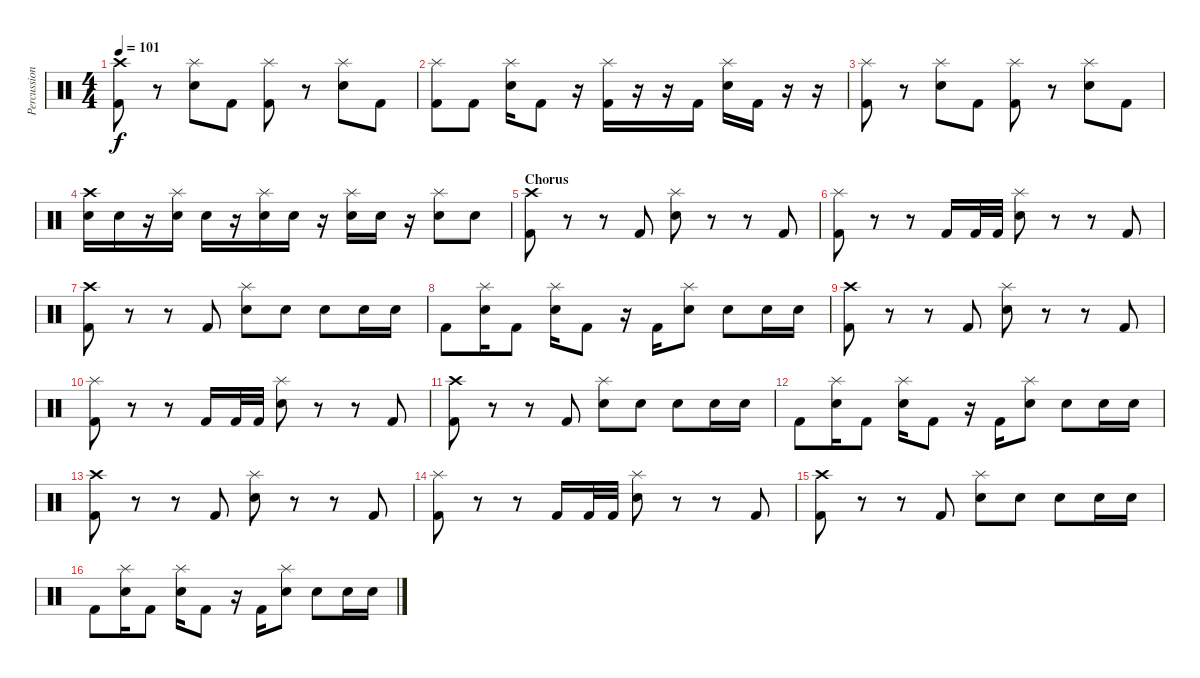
\track ("Percussion" "Percussion") {instrument percussion}
\staff {score}
\articulation defaults
\ts (4 4)
\tempo 101
\clef neutral
\ks c
("Crash high (hit)" "Kick (hit) 2").8{dy f} r.8 ("Splash (hit)" "Electric Snare (hit)").8 "Kick (hit) 2".8 ("Splash (hit)" "Kick (hit) 2").8 r.8 ("Splash (hit)" "Electric Snare (hit)").8 "Kick (hit) 2".8 |
("Splash (hit)" "Kick (hit) 2").8 "Kick (hit) 2".8 ("Splash (hit)" "Electric Snare (hit)").16 "Kick (hit) 2".8 r.16 ("Splash (hit)" "Kick (hit) 2").16 r.16 r.16 "Kick (hit) 2".16 ("Splash (hit)" "Electric Snare (hit)").16 "Kick (hit) 2".16 r.16 r.16 |
("Splash (hit)" "Kick (hit) 2").8 r.8 ("Splash (hit)" "Electric Snare (hit)").8 "Kick (hit) 2".8 ("Splash (hit)" "Kick (hit) 2").8 r.8 ("Splash (hit)" "Electric Snare (hit)").8 "Kick (hit) 2".8 |
("Crash high (hit)" "Electric Snare (hit)").16 "Electric Snare (hit)".16 r.16 ("Splash (hit)" "Electric Snare (hit)").16 "Electric Snare (hit)".16 r.16 ("Splash (hit)" "Electric Snare (hit)").16 "Electric Snare (hit)".16 r.16 ("Splash (hit)" "Electric Snare (hit)").16 "Electric Snare (hit)".16 r.16 ("Splash (hit)" "Electric Snare (hit)").8 "Electric Snare (hit)".8 |
\section ("" "Chorus")
("Crash high (hit)" "Kick (hit) 2").8 r.8 r.8 "Kick (hit) 2".8 ("Splash (hit)" "Electric Snare (hit)").8 r.8 r.8 "Kick (hit) 2".8 |
("Splash (hit)" "Kick (hit) 2").8 r.8 r.8 "Kick (hit) 2".16 "Kick (hit) 2".32 "Kick (hit) 2".32 ("Splash (hit)" "Electric Snare (hit)").8 r.8 r.8 "Kick (hit) 2".8 |
("Crash high (hit)" "Kick (hit) 2").8 r.8 r.8 "Kick (hit) 2".8 ("Splash (hit)" "Electric Snare (hit)").8 "Electric Snare (hit)".8 "Electric Snare (hit)".8 "Electric Snare (hit)".16 "Electric Snare (hit)".16 |
"Kick (hit) 2".8 ("Splash (hit)" "Electric Snare (hit)").16 "Kick (hit) 2".8 ("Splash (hit)" "Electric Snare (hit)").16 "Kick (hit) 2".8 r.16 "Kick (hit) 2".16 ("Splash (hit)" "Electric Snare (hit)").8 "Electric Snare (hit)".8 "Electric Snare (hit)".16 "Electric Snare (hit)".16 |
("Crash high (hit)" "Kick (hit) 2").8 r.8 r.8 "Kick (hit) 2".8 ("Splash (hit)" "Electric Snare (hit)").8 r.8 r.8 "Kick (hit) 2".8 |
("Splash (hit)" "Kick (hit) 2").8 r.8 r.8 "Kick (hit) 2".16 "Kick (hit) 2".32 "Kick (hit) 2".32 ("Splash (hit)" "Electric Snare (hit)").8 r.8 r.8 "Kick (hit) 2".8 |
("Crash high (hit)" "Kick (hit) 2").8 r.8 r.8 "Kick (hit) 2".8 ("Splash (hit)" "Electric Snare (hit)").8 "Electric Snare (hit)".8 "Electric Snare (hit)".8 "Electric Snare (hit)".16 "Electric Snare (hit)".16 |
"Kick (hit) 2".8 ("Splash (hit)" "Electric Snare (hit)").16 "Kick (hit) 2".8 ("Splash (hit)" "Electric Snare (hit)").16 "Kick (hit) 2".8 r.16 "Kick (hit) 2".16 ("Splash (hit)" "Electric Snare (hit)").8 "Electric Snare (hit)".8 "Electric Snare (hit)".16 "Electric Snare (hit)".16 |
("Crash high (hit)" "Kick (hit) 2").8 r.8 r.8 "Kick (hit) 2".8 ("Splash (hit)" "Electric Snare (hit)").8 r.8 r.8 "Kick (hit) 2".8 |
("Splash (hit)" "Kick (hit) 2").8 r.8 r.8 "Kick (hit) 2".16 "Kick (hit) 2".32 "Kick (hit) 2".32 ("Splash (hit)" "Electric Snare (hit)").8 r.8 r.8 "Kick (hit) 2".8 |
("Crash high (hit)" "Kick (hit) 2").8 r.8 r.8 "Kick (hit) 2".8 ("Splash (hit)" "Electric Snare (hit)").8 "Electric Snare (hit)".8 "Electric Snare (hit)".8 "Electric Snare (hit)".16 "Electric Snare (hit)".16 |
"Kick (hit) 2".8 ("Splash (hit)" "Electric Snare (hit)").16 "Kick (hit) 2".8 ("Splash (hit)" "Electric Snare (hit)").16 "Kick (hit) 2".8 r.16 "Kick (hit) 2".16 ("Splash (hit)" "Electric Snare (hit)").8 "Electric Snare (hit)".8 "Electric Snare (hit)".16 "Electric Snare (hit)".16
